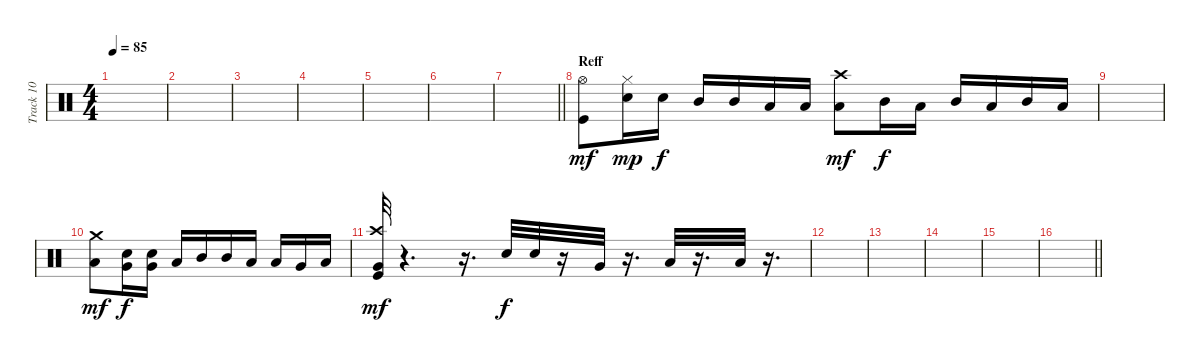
\track ("Track 10" "Track 10") {instrument percussion}
\staff {score}
\articulation defaults
\ts (4 4)
\tempo 85
\clef neutral
\ks c
|
|
|
|
|
|
\barLineRight lightlight
|
\section ("" "Reff")
("Kick (hit)" "Hi-Hat (open)").8{dy mf} ("Hi-Hat (closed)" "Electric Snare (hit)").16{dy mp} "Electric Snare (hit)".16{dy f} "Mid Tom (hit)".16 "Mid Tom (hit)".16 "Low Tom (hit)".16 "Low Tom (hit)".16 ("Low Floor Tom (hit)" "Crash high (hit)").8{dy mf} "Mid Tom (hit)".16{dy f} "Low Tom (hit)".16 "Mid Tom (hit)".16 "Low Floor Tom (hit)".16 "Mid Tom (hit)".16 "Low Tom (hit)".16 |
|
("Crash medium (hit)" "Low Floor Tom (hit)").8{dy mf} ("Very Low Tom (hit)" "Electric Snare (hit)").16{dy f} ("Electric Snare (hit)" "Very Low Tom (hit)").16 "Low Tom (hit)".16 "Mid Tom (hit)".16 "Mid Tom (hit)".16 "Low Tom (hit)".16 "Low Tom (hit)".16 "Very Low Tom (hit)".16 "Low Tom (hit)".16 |
("Crash high (hit)" "Kick (hit)" "Very Low Tom (hit)").32{dy mf} r.4{d} r.16{d} "Electric Snare (hit)".32{dy f} "Electric Snare (hit)".32 r.16 "Very Low Tom (hit)".32 r.16{d} "Low Floor Tom (hit)".32 r.16{d} "Low Tom (hit)".32 r.16{d} |
|
|
|
|
\barLineRight lightlight
